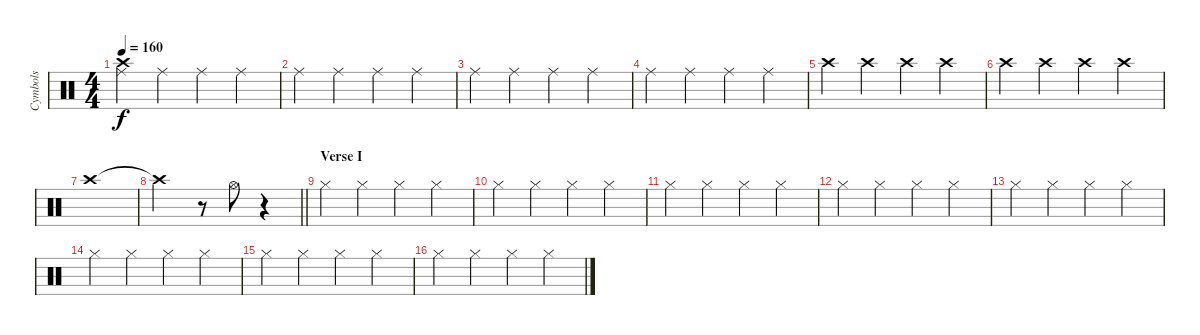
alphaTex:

\track ("Cymbols" "Cymbols") {instrument percussion}
\staff {score}
\articulation defaults
\ts (4 4)
\tempo 160
\clef neutral
\ks c
("Crash high (hit)" "Ride (middle)").4{dy f} "Ride (middle)".4 "Ride (middle)".4 "Ride (middle)".4 |
"Ride (middle)".4 "Ride (middle)".4 "Ride (middle)".4 "Ride (middle)".4 |
"Ride (middle)".4 "Ride (middle)".4 "Ride (middle)".4 "Ride (middle)".4 |
"Ride (middle)".4 "Ride (middle)".4 "Ride (middle)".4 "Ride (middle)".4 |
"Crash high (hit)".4 "Crash high (hit)".4 "Crash high (hit)".4 "Crash high (hit)".4 |
"Crash high (hit)".4 "Crash high (hit)".4 "Crash high (hit)".4 "Crash high (hit)".4 |
"Crash high (hit)".1 |
\barLineRight lightlight "Crash high (hit)"{t}.2
r.8 "Hi-Hat (open)".8 r.4 |
\section ("" "Verse I")
"Hi-Hat (closed)".4 "Hi-Hat (closed)".4 "Hi-Hat (closed)".4 "Hi-Hat (closed)".4 |
"Hi-Hat (closed)".4 "Hi-Hat (closed)".4 "Hi-Hat (closed)".4 "Hi-Hat (closed)".4 |
"Hi-Hat (closed)".4 "Hi-Hat (closed)".4 "Hi-Hat (closed)".4 "Hi-Hat (closed)".4 |
"Hi-Hat (closed)".4 "Hi-Hat (closed)".4 "Hi-Hat (closed)".4 "Hi-Hat (closed)".4 |
"Hi-Hat (closed)".4 "Hi-Hat (closed)".4 "Hi-Hat (closed)".4 "Hi-Hat (closed)".4 |
"Hi-Hat (closed)".4 "Hi-Hat (closed)".4 "Hi-Hat (closed)".4 "Hi-Hat (closed)".4 |
"Hi-Hat (closed)".4 "Hi-Hat (closed)".4 "Hi-Hat (closed)".4 "Hi-Hat (closed)".4 |
"Hi-Hat (closed)".4 "Hi-Hat (closed)".4 "Hi-Hat (closed)".4 "Hi-Hat (closed)".4
